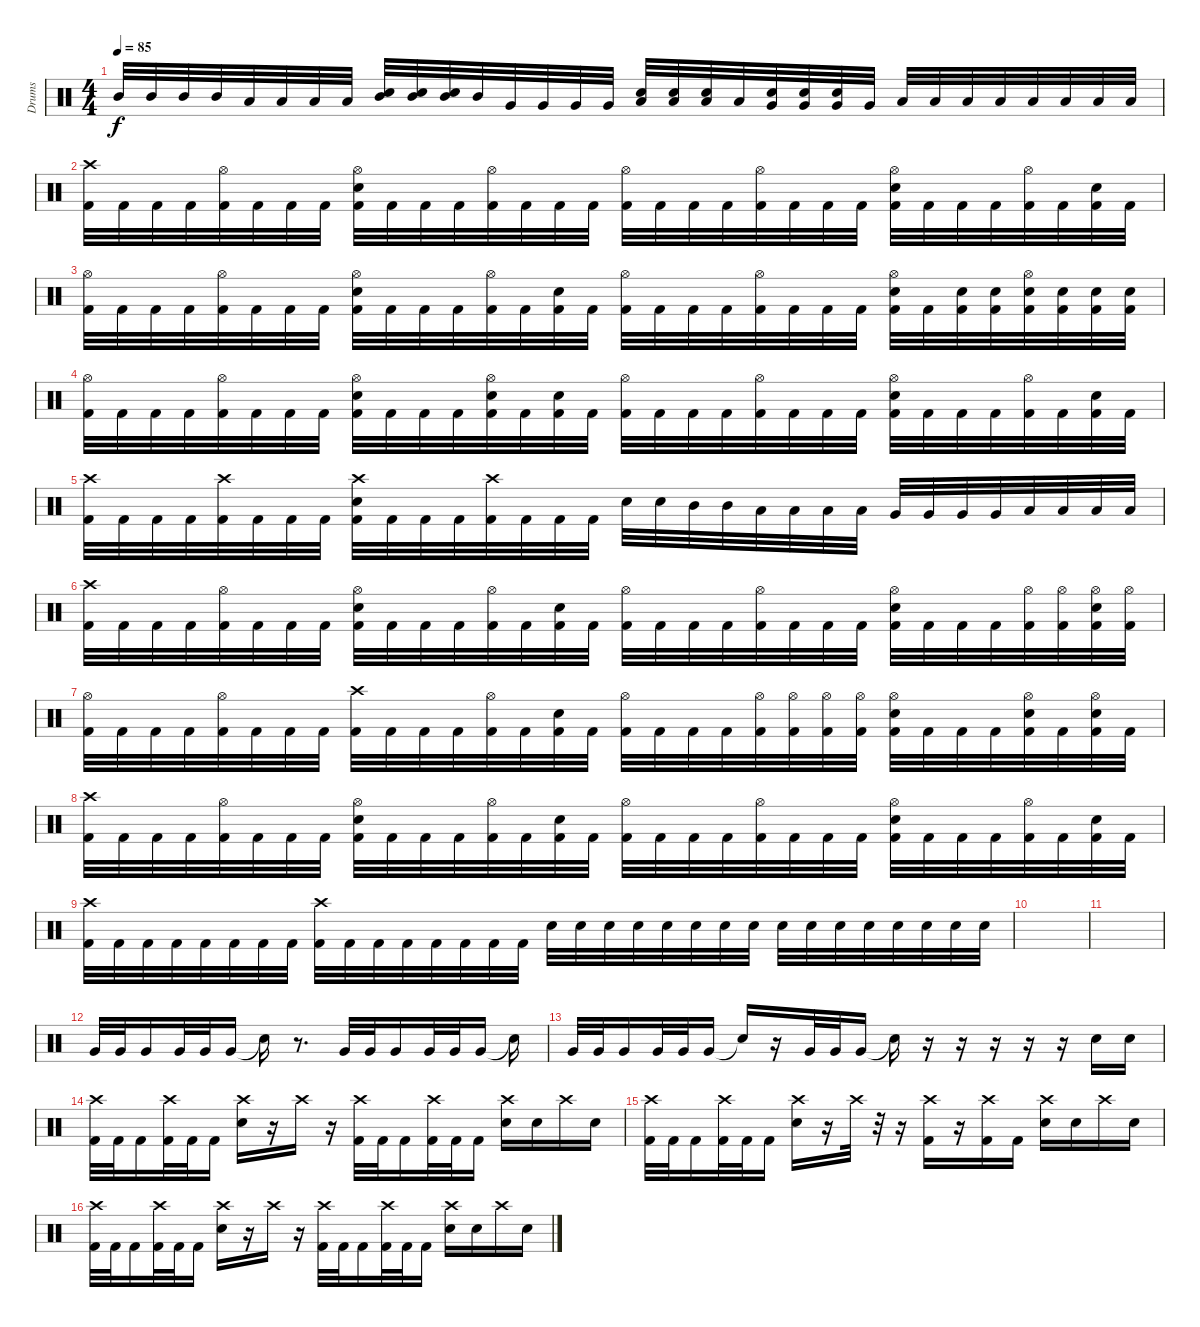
\track ("Drums" "Drums") {instrument percussion}
\staff {score}
\articulation defaults
\ts (4 4)
\tempo 85
\clef neutral
\ks c "Mid Tom (hit)".32{dy f} "Mid Tom (hit)".32 "Mid Tom (hit)".32 "Mid Tom (hit)".32 "Low Tom (hit)".32 "Low Tom (hit)".32 "Low Tom (hit)".32 "Low Tom (hit)".32
("Mid Tom (hit)" "Electric Snare (hit)").32 ("Mid Tom (hit)" "Electric Snare (hit)").32 ("Mid Tom (hit)" "Electric Snare (hit)").32 "Mid Tom (hit)".32 "Very Low Tom (hit)".32 "Very Low Tom (hit)".32 "Very Low Tom (hit)".32 "Very Low Tom (hit)".32 ("Low Tom (hit)" "Electric Snare (hit)").32 ("Low Tom (hit)" "Electric Snare (hit)").32 ("Low Tom (hit)" "Electric Snare (hit)").32 "Low Tom (hit)".32 ("Very Low Tom (hit)" "Electric Snare (hit)").32 ("Very Low Tom (hit)" "Electric Snare (hit)").32 ("Very Low Tom (hit)" "Electric Snare (hit)").32 "Very Low Tom (hit)".32 "Low Tom (hit)".32 "Low Tom (hit)".32 "Low Tom (hit)".32 "Low Tom (hit)".32 "Low Floor Tom (hit)".32 "Low Floor Tom (hit)".32 "Low Floor Tom (hit)".32 "Low Floor Tom (hit)".32 |
("Crash high (hit)" "Kick (hit) 2").32 "Kick (hit) 2".32 "Kick (hit) 2".32 "Kick (hit) 2".32 ("Hi-Hat (open)" "Kick (hit) 2").32 "Kick (hit) 2".32 "Kick (hit) 2".32 "Kick (hit) 2".32 ("Hi-Hat (open)" "Electric Snare (hit)" "Kick (hit) 2").32 "Kick (hit) 2".32 "Kick (hit) 2".32 "Kick (hit) 2".32 ("Hi-Hat (open)" "Kick (hit) 2").32 "Kick (hit) 2".32 "Kick (hit) 2".32 "Kick (hit) 2".32 ("Hi-Hat (open)" "Kick (hit) 2").32 "Kick (hit) 2".32 "Kick (hit) 2".32 "Kick (hit) 2".32 ("Hi-Hat (open)" "Kick (hit) 2").32 "Kick (hit) 2".32 "Kick (hit) 2".32 "Kick (hit) 2".32 ("Hi-Hat (open)" "Electric Snare (hit)" "Kick (hit) 2").32 "Kick (hit) 2".32 "Kick (hit) 2".32 "Kick (hit) 2".32 ("Hi-Hat (open)" "Kick (hit) 2").32 "Kick (hit) 2".32 ("Electric Snare (hit)" "Kick (hit) 2").32 "Kick (hit) 2".32 |
("Hi-Hat (open)" "Kick (hit) 2").32 "Kick (hit) 2".32 "Kick (hit) 2".32 "Kick (hit) 2".32 ("Hi-Hat (open)" "Kick (hit) 2").32 "Kick (hit) 2".32 "Kick (hit) 2".32 "Kick (hit) 2".32 ("Hi-Hat (open)" "Electric Snare (hit)" "Kick (hit) 2").32 "Kick (hit) 2".32 "Kick (hit) 2".32 "Kick (hit) 2".32 ("Hi-Hat (open)" "Kick (hit) 2").32 "Kick (hit) 2".32 ("Electric Snare (hit)" "Kick (hit) 2").32 "Kick (hit) 2".32 ("Hi-Hat (open)" "Kick (hit) 2").32 "Kick (hit) 2".32 "Kick (hit) 2".32 "Kick (hit) 2".32 ("Hi-Hat (open)" "Kick (hit) 2").32 "Kick (hit) 2".32 "Kick (hit) 2".32 "Kick (hit) 2".32 ("Hi-Hat (open)" "Electric Snare (hit)" "Kick (hit) 2").32 "Kick (hit) 2".32 ("Electric Snare (hit)" "Kick (hit) 2").32 ("Electric Snare (hit)" "Kick (hit) 2").32 ("Hi-Hat (open)" "Electric Snare (hit)" "Kick (hit) 2").32 ("Electric Snare (hit)" "Kick (hit) 2").32 ("Electric Snare (hit)" "Kick (hit) 2").32 ("Electric Snare (hit)" "Kick (hit) 2").32 |
("Hi-Hat (open)" "Kick (hit) 2").32 "Kick (hit) 2".32 "Kick (hit) 2".32 "Kick (hit) 2".32 ("Hi-Hat (open)" "Kick (hit) 2").32 "Kick (hit) 2".32 "Kick (hit) 2".32 "Kick (hit) 2".32 ("Hi-Hat (open)" "Electric Snare (hit)" "Kick (hit) 2").32 "Kick (hit) 2".32 "Kick (hit) 2".32 "Kick (hit) 2".32 ("Hi-Hat (open)" "Electric Snare (hit)" "Kick (hit) 2").32 "Kick (hit) 2".32 ("Electric Snare (hit)" "Kick (hit) 2").32 "Kick (hit) 2".32 ("Hi-Hat (open)" "Kick (hit) 2").32 "Kick (hit) 2".32 "Kick (hit) 2".32 "Kick (hit) 2".32 ("Hi-Hat (open)" "Kick (hit) 2").32 "Kick (hit) 2".32 "Kick (hit) 2".32 "Kick (hit) 2".32 ("Hi-Hat (open)" "Electric Snare (hit)" "Kick (hit) 2").32 "Kick (hit) 2".32 "Kick (hit) 2".32 "Kick (hit) 2".32 ("Hi-Hat (open)" "Kick (hit) 2").32 "Kick (hit) 2".32 ("Electric Snare (hit)" "Kick (hit) 2").32 "Kick (hit) 2".32 |
("Crash high (hit)" "Kick (hit) 2").32 "Kick (hit) 2".32 "Kick (hit) 2".32 "Kick (hit) 2".32 ("Crash high (hit)" "Kick (hit) 2").32 "Kick (hit) 2".32 "Kick (hit) 2".32 "Kick (hit) 2".32 ("Crash high (hit)" "Electric Snare (hit)" "Kick (hit) 2").32 "Kick (hit) 2".32 "Kick (hit) 2".32 "Kick (hit) 2".32 ("Crash high (hit)" "Kick (hit) 2").32 "Kick (hit) 2".32 "Kick (hit) 2".32 "Kick (hit) 2".32 "Electric Snare (hit)".32 "Electric Snare (hit)".32 "Mid Tom (hit)".32 "Mid Tom (hit)".32 "Low Tom (hit)".32 "Low Tom (hit)".32 "Low Tom (hit)".32 "Low Tom (hit)".32 "Very Low Tom (hit)".32 "Very Low Tom (hit)".32 "Very Low Tom (hit)".32 "Very Low Tom (hit)".32 "Low Floor Tom (hit)".32 "Low Floor Tom (hit)".32 "Low Floor Tom (hit)".32 "Low Floor Tom (hit)".32 |
("Crash high (hit)" "Kick (hit) 2").32 "Kick (hit) 2".32 "Kick (hit) 2".32 "Kick (hit) 2".32 ("Hi-Hat (open)" "Kick (hit) 2").32 "Kick (hit) 2".32 "Kick (hit) 2".32 "Kick (hit) 2".32 ("Hi-Hat (open)" "Electric Snare (hit)" "Kick (hit) 2").32 "Kick (hit) 2".32 "Kick (hit) 2".32 "Kick (hit) 2".32 ("Hi-Hat (open)" "Kick (hit) 2").32 "Kick (hit) 2".32 ("Electric Snare (hit)" "Kick (hit) 2").32 "Kick (hit) 2".32 ("Hi-Hat (open)" "Kick (hit) 2").32 "Kick (hit) 2".32 "Kick (hit) 2".32 "Kick (hit) 2".32 ("Hi-Hat (open)" "Kick (hit) 2").32 "Kick (hit) 2".32 "Kick (hit) 2".32 "Kick (hit) 2".32 ("Hi-Hat (open)" "Electric Snare (hit)" "Kick (hit) 2").32 "Kick (hit) 2".32 "Kick (hit) 2".32 "Kick (hit) 2".32 ("Hi-Hat (open)" "Kick (hit) 2").32 ("Hi-Hat (open)" "Kick (hit) 2").32 ("Hi-Hat (open)" "Electric Snare (hit)" "Kick (hit) 2").32 ("Hi-Hat (open)" "Kick (hit) 2").32 |
("Hi-Hat (open)" "Kick (hit) 2").32 "Kick (hit) 2".32 "Kick (hit) 2".32 "Kick (hit) 2".32 ("Hi-Hat (open)" "Kick (hit) 2").32 "Kick (hit) 2".32 "Kick (hit) 2".32 "Kick (hit) 2".32 ("Crash high (hit)" "Kick (hit) 2").32 "Kick (hit) 2".32 "Kick (hit) 2".32 "Kick (hit) 2".32 ("Hi-Hat (open)" "Kick (hit) 2").32 "Kick (hit) 2".32 ("Electric Snare (hit)" "Kick (hit) 2").32 "Kick (hit) 2".32 ("Hi-Hat (open)" "Kick (hit) 2").32 "Kick (hit) 2".32 "Kick (hit) 2".32 "Kick (hit) 2".32 ("Hi-Hat (open)" "Kick (hit) 2").32 ("Hi-Hat (open)" "Kick (hit) 2").32 ("Hi-Hat (open)" "Kick (hit) 2").32 ("Hi-Hat (open)" "Kick (hit) 2").32 ("Hi-Hat (open)" "Electric Snare (hit)" "Kick (hit) 2").32 "Kick (hit) 2".32 "Kick (hit) 2".32 "Kick (hit) 2".32 ("Hi-Hat (open)" "Electric Snare (hit)" "Kick (hit) 2").32 "Kick (hit) 2".32 ("Hi-Hat (open)" "Electric Snare (hit)" "Kick (hit) 2").32 "Kick (hit) 2".32 |
("Crash high (hit)" "Kick (hit) 2").32 "Kick (hit) 2".32 "Kick (hit) 2".32 "Kick (hit) 2".32 ("Hi-Hat (open)" "Kick (hit) 2").32 "Kick (hit) 2".32 "Kick (hit) 2".32 "Kick (hit) 2".32 ("Hi-Hat (open)" "Electric Snare (hit)" "Kick (hit) 2").32 "Kick (hit) 2".32 "Kick (hit) 2".32 "Kick (hit) 2".32 ("Hi-Hat (open)" "Kick (hit) 2").32 "Kick (hit) 2".32 ("Electric Snare (hit)" "Kick (hit) 2").32 "Kick (hit) 2".32 ("Hi-Hat (open)" "Kick (hit) 2").32 "Kick (hit) 2".32 "Kick (hit) 2".32 "Kick (hit) 2".32 ("Hi-Hat (open)" "Kick (hit) 2").32 "Kick (hit) 2".32 "Kick (hit) 2".32 "Kick (hit) 2".32 ("Hi-Hat (open)" "Electric Snare (hit)" "Kick (hit) 2").32 "Kick (hit) 2".32 "Kick (hit) 2".32 "Kick (hit) 2".32 ("Hi-Hat (open)" "Kick (hit) 2").32 "Kick (hit) 2".32 ("Electric Snare (hit)" "Kick (hit) 2").32 "Kick (hit) 2".32 |
("Crash high (hit)" "Kick (hit) 2").32 "Kick (hit) 2".32 "Kick (hit) 2".32 "Kick (hit) 2".32 "Kick (hit) 2".32 "Kick (hit) 2".32 "Kick (hit) 2".32 "Kick (hit) 2".32 ("Crash high (hit)" "Kick (hit) 2").32 "Kick (hit) 2".32 "Kick (hit) 2".32 "Kick (hit) 2".32 "Kick (hit) 2".32 "Kick (hit) 2".32 "Kick (hit) 2".32 "Kick (hit) 2".32 "Electric Snare (hit)".32 "Electric Snare (hit)".32 "Electric Snare (hit)".32 "Electric Snare (hit)".32 "Electric Snare (hit)".32 "Electric Snare (hit)".32 "Electric Snare (hit)".32 "Electric Snare (hit)".32 "Electric Snare (hit)".32 "Electric Snare (hit)".32 "Electric Snare (hit)".32 "Electric Snare (hit)".32 "Electric Snare (hit)".32 "Electric Snare (hit)".32 "Electric Snare (hit)".32 "Electric Snare (hit)".32 |
|
|
"Very Low Tom (hit)".32 "Very Low Tom (hit)".32 "Very Low Tom (hit)".16 "Very Low Tom (hit)".32 "Very Low Tom (hit)".32 "Very Low Tom (hit)".16 "Snare (hit)"{t}.16 r.8{d} "Very Low Tom (hit)".32 "Very Low Tom (hit)".32 "Very Low Tom (hit)".16 "Very Low Tom (hit)".32 "Very Low Tom (hit)".32 "Very Low Tom (hit)".16 "Snare (hit)"{t}.16 |
"Very Low Tom (hit)".32 "Very Low Tom (hit)".32 "Very Low Tom (hit)".16 "Very Low Tom (hit)".32 "Very Low Tom (hit)".32 "Very Low Tom (hit)".16 "Snare (hit)"{t}.16 r.16 "Very Low Tom (hit)".32 "Very Low Tom (hit)".32 "Very Low Tom (hit)".16 "Snare (hit)"{t}.16 r.16 r.16 r.16 r.16 r.16 "Electric Snare (hit)".16 "Electric Snare (hit)".16 |
("Crash high (hit)" "Kick (hit) 2").32 "Kick (hit) 2".32 "Kick (hit) 2".16 ("Crash high (hit)" "Kick (hit) 2").32 "Kick (hit) 2".32 "Kick (hit) 2".16 ("Crash high (hit)" "Electric Snare (hit)").16 r.16 "Crash high (hit)".16 r.16 ("Crash high (hit)" "Kick (hit) 2").32 "Kick (hit) 2".32 "Kick (hit) 2".16 ("Crash high (hit)" "Kick (hit) 2").32 "Kick (hit) 2".32 "Kick (hit) 2".16 ("Crash high (hit)" "Electric Snare (hit)").16 "Electric Snare (hit)".16 "Crash high (hit)".16 "Electric Snare (hit)".16 |
("Crash high (hit)" "Kick (hit) 2").32 "Kick (hit) 2".32 "Kick (hit) 2".16 ("Crash high (hit)" "Kick (hit) 2").32 "Kick (hit) 2".32 "Kick (hit) 2".16 ("Crash high (hit)" "Electric Snare (hit)").16 r.16 "Crash high (hit)".32 r.32 r.16 ("Crash high (hit)" "Kick (hit) 2").16 r.16 ("Crash high (hit)" "Kick (hit) 2").16 "Kick (hit) 2".16 ("Crash high (hit)" "Electric Snare (hit)").16 "Electric Snare (hit)".16 "Crash high (hit)".16 "Electric Snare (hit)".16 |
("Crash high (hit)" "Kick (hit) 2").32 "Kick (hit) 2".32 "Kick (hit) 2".16 ("Crash high (hit)" "Kick (hit) 2").32 "Kick (hit) 2".32 "Kick (hit) 2".16 ("Crash high (hit)" "Electric Snare (hit)").16 r.16 "Crash high (hit)".16 r.16 ("Crash high (hit)" "Kick (hit) 2").32 "Kick (hit) 2".32 "Kick (hit) 2".16 ("Crash high (hit)" "Kick (hit) 2").32 "Kick (hit) 2".32 "Kick (hit) 2".16 ("Crash high (hit)" "Electric Snare (hit)").16 "Electric Snare (hit)".16 "Crash high (hit)".16 "Electric Snare (hit)".16
